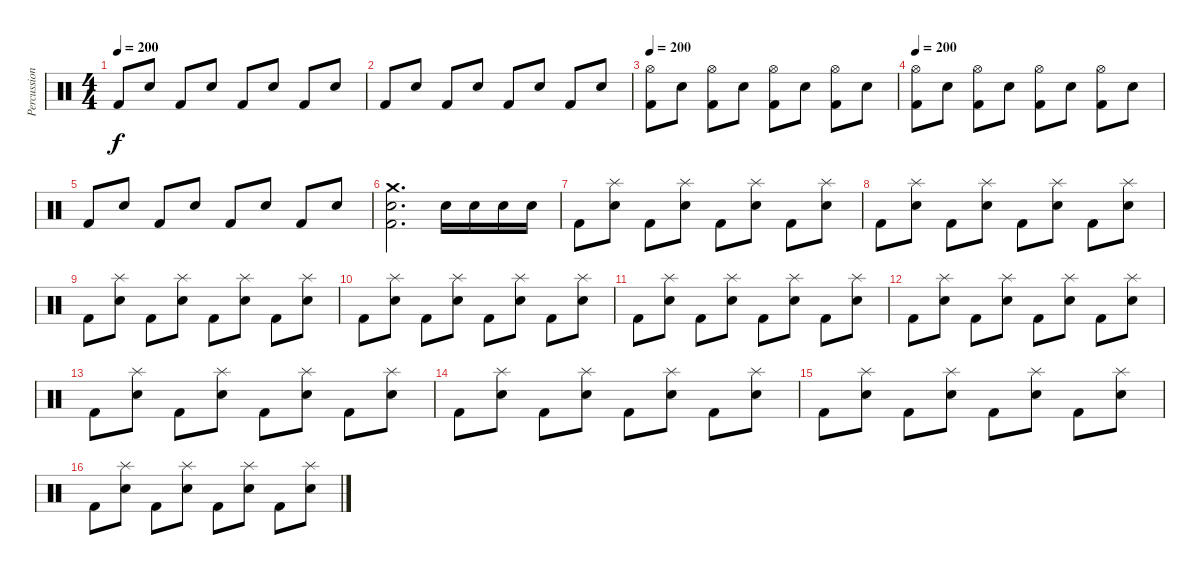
\track ("Percussion" "Percussion") {instrument percussion}
\staff {score}
\articulation defaults
\ts (4 4)
\tempo 200
\clef neutral
\ks c "Kick (hit) 2".8{dy f} "Electric Snare (hit)".8 "Kick (hit) 2".8 "Electric Snare (hit)".8 "Kick (hit) 2".8 "Electric Snare (hit)".8 "Kick (hit) 2".8 "Electric Snare (hit)".8
|
"Kick (hit) 2".8 "Electric Snare (hit)".8 "Kick (hit) 2".8 "Electric Snare (hit)".8 "Kick (hit) 2".8 "Electric Snare (hit)".8 "Kick (hit) 2".8 "Electric Snare (hit)".8 |
\tempo 200
("Hi-Hat (open)" "Kick (hit) 2").8 "Electric Snare (hit)".8 ("Hi-Hat (open)" "Kick (hit) 2").8 "Electric Snare (hit)".8 ("Hi-Hat (open)" "Kick (hit) 2").8 "Electric Snare (hit)".8 ("Hi-Hat (open)" "Kick (hit) 2").8 "Electric Snare (hit)".8 |
\tempo 200
("Hi-Hat (open)" "Kick (hit) 2").8 "Electric Snare (hit)".8 ("Hi-Hat (open)" "Kick (hit) 2").8 "Electric Snare (hit)".8 ("Hi-Hat (open)" "Kick (hit) 2").8 "Electric Snare (hit)".8 ("Hi-Hat (open)" "Kick (hit) 2").8 "Electric Snare (hit)".8 |
"Kick (hit) 2".8 "Electric Snare (hit)".8 "Kick (hit) 2".8 "Electric Snare (hit)".8 "Kick (hit) 2".8 "Electric Snare (hit)".8 "Kick (hit) 2".8 "Electric Snare (hit)".8 |
("Crash medium (hit)" "Electric Snare (hit)" "Kick (hit) 2").2{d} "Electric Snare (hit)".16 "Electric Snare (hit)".16 "Electric Snare (hit)".16 "Electric Snare (hit)".16 |
"Kick (hit) 2".8 ("Splash (hit)" "Electric Snare (hit)").8 "Kick (hit) 2".8 ("Splash (hit)" "Electric Snare (hit)").8 "Kick (hit) 2".8 ("Splash (hit)" "Electric Snare (hit)").8 "Kick (hit) 2".8 ("Splash (hit)" "Electric Snare (hit)").8 |
"Kick (hit) 2".8 ("Splash (hit)" "Electric Snare (hit)").8 "Kick (hit) 2".8 ("Splash (hit)" "Electric Snare (hit)").8 "Kick (hit) 2".8 ("Splash (hit)" "Electric Snare (hit)").8 "Kick (hit) 2".8 ("Splash (hit)" "Electric Snare (hit)").8 |
"Kick (hit) 2".8 ("Splash (hit)" "Electric Snare (hit)").8 "Kick (hit) 2".8 ("Splash (hit)" "Electric Snare (hit)").8 "Kick (hit) 2".8 ("Splash (hit)" "Electric Snare (hit)").8 "Kick (hit) 2".8 ("Splash (hit)" "Electric Snare (hit)").8 |
"Kick (hit) 2".8 ("Splash (hit)" "Electric Snare (hit)").8 "Kick (hit) 2".8 ("Splash (hit)" "Electric Snare (hit)").8 "Kick (hit) 2".8 ("Splash (hit)" "Electric Snare (hit)").8 "Kick (hit) 2".8 ("Splash (hit)" "Electric Snare (hit)").8 |
"Kick (hit) 2".8 ("Splash (hit)" "Electric Snare (hit)").8 "Kick (hit) 2".8 ("Splash (hit)" "Electric Snare (hit)").8 "Kick (hit) 2".8 ("Splash (hit)" "Electric Snare (hit)").8 "Kick (hit) 2".8 ("Splash (hit)" "Electric Snare (hit)").8 |
"Kick (hit) 2".8 ("Splash (hit)" "Electric Snare (hit)").8 "Kick (hit) 2".8 ("Splash (hit)" "Electric Snare (hit)").8 "Kick (hit) 2".8 ("Splash (hit)" "Electric Snare (hit)").8 "Kick (hit) 2".8 ("Splash (hit)" "Electric Snare (hit)").8 |
"Kick (hit) 2".8 ("Splash (hit)" "Electric Snare (hit)").8 "Kick (hit) 2".8 ("Splash (hit)" "Electric Snare (hit)").8 "Kick (hit) 2".8 ("Splash (hit)" "Electric Snare (hit)").8 "Kick (hit) 2".8 ("Splash (hit)" "Electric Snare (hit)").8 |
"Kick (hit) 2".8 ("Splash (hit)" "Electric Snare (hit)").8 "Kick (hit) 2".8 ("Splash (hit)" "Electric Snare (hit)").8 "Kick (hit) 2".8 ("Splash (hit)" "Electric Snare (hit)").8 "Kick (hit) 2".8 ("Splash (hit)" "Electric Snare (hit)").8 |
"Kick (hit) 2".8 ("Splash (hit)" "Electric Snare (hit)").8 "Kick (hit) 2".8 ("Splash (hit)" "Electric Snare (hit)").8 "Kick (hit) 2".8 ("Splash (hit)" "Electric Snare (hit)").8 "Kick (hit) 2".8 ("Splash (hit)" "Electric Snare (hit)").8 |
"Kick (hit) 2".8 ("Splash (hit)" "Electric Snare (hit)").8 "Kick (hit) 2".8 ("Splash (hit)" "Electric Snare (hit)").8 "Kick (hit) 2".8 ("Splash (hit)" "Electric Snare (hit)").8 "Kick (hit) 2".8 ("Splash (hit)" "Electric Snare (hit)").8
